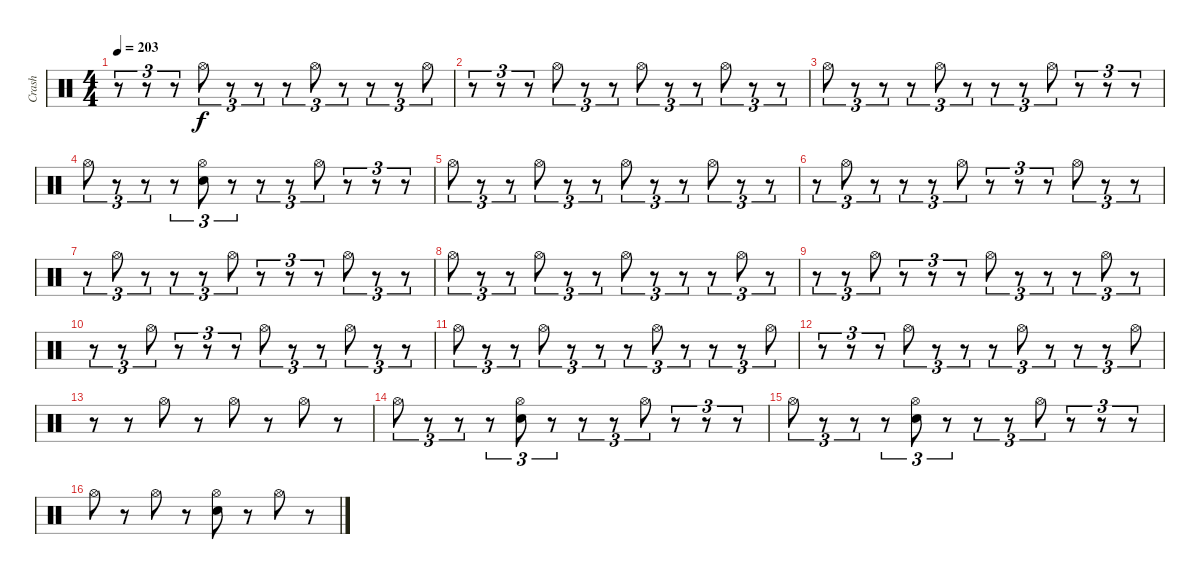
\track ("Crash" "Crash") {instrument percussion}
\staff {score}
\articulation defaults
\ts (4 4)
\tempo 203
\clef neutral
\ks c
r.8{tu (3 2) dy f} r.8{tu (3 2)} r.8{tu (3 2)} "Hi-Hat (open)".8{tu (3 2)} r.8{tu (3 2)} r.8{tu (3 2)} r.8{tu (3 2)} "Hi-Hat (open)".8{tu (3 2)} r.8{tu (3 2)} r.8{tu (3 2)} r.8{tu (3 2)} "Hi-Hat (open)".8{tu (3 2)} |
r.8{tu (3 2)} r.8{tu (3 2)} r.8{tu (3 2)} "Hi-Hat (open)".8{tu (3 2)} r.8{tu (3 2)} r.8{tu (3 2)} "Hi-Hat (open)".8{tu (3 2)} r.8{tu (3 2)} r.8{tu (3 2)} "Hi-Hat (open)".8{tu (3 2)} r.8{tu (3 2)} r.8{tu (3 2)} |
"Hi-Hat (open)".8{tu (3 2)} r.8{tu (3 2)} r.8{tu (3 2)} r.8{tu (3 2)} "Hi-Hat (open)".8{tu (3 2)} r.8{tu (3 2)} r.8{tu (3 2)} r.8{tu (3 2)} "Hi-Hat (open)".8{tu (3 2)} r.8{tu (3 2)} r.8{tu (3 2)} r.8{tu (3 2)} |
"Hi-Hat (open)".8{tu (3 2)} r.8{tu (3 2)} r.8{tu (3 2)} r.8{tu (3 2)} ("Hi-Hat (open)" "Snare (hit) 2").8{tu (3 2)} r.8{tu (3 2)} r.8{tu (3 2)} r.8{tu (3 2)} "Hi-Hat (open)".8{tu (3 2)} r.8{tu (3 2)} r.8{tu (3 2)} r.8{tu (3 2)} |
"Hi-Hat (open)".8{tu (3 2)} r.8{tu (3 2)} r.8{tu (3 2)} "Hi-Hat (open)".8{tu (3 2)} r.8{tu (3 2)} r.8{tu (3 2)} "Hi-Hat (open)".8{tu (3 2)} r.8{tu (3 2)} r.8{tu (3 2)} "Hi-Hat (open)".8{tu (3 2)} r.8{tu (3 2)} r.8{tu (3 2)} |
r.8{tu (3 2)} "Hi-Hat (open)".8{tu (3 2)} r.8{tu (3 2)} r.8{tu (3 2)} r.8{tu (3 2)} "Hi-Hat (open)".8{tu (3 2)} r.8{tu (3 2)} r.8{tu (3 2)} r.8{tu (3 2)} "Hi-Hat (open)".8{tu (3 2)} r.8{tu (3 2)} r.8{tu (3 2)} |
r.8{tu (3 2)} "Hi-Hat (open)".8{tu (3 2)} r.8{tu (3 2)} r.8{tu (3 2)} r.8{tu (3 2)} "Hi-Hat (open)".8{tu (3 2)} r.8{tu (3 2)} r.8{tu (3 2)} r.8{tu (3 2)} "Hi-Hat (open)".8{tu (3 2)} r.8{tu (3 2)} r.8{tu (3 2)} |
"Hi-Hat (open)".8{tu (3 2)} r.8{tu (3 2)} r.8{tu (3 2)} "Hi-Hat (open)".8{tu (3 2)} r.8{tu (3 2)} r.8{tu (3 2)} "Hi-Hat (open)".8{tu (3 2)} r.8{tu (3 2)} r.8{tu (3 2)} r.8{tu (3 2)} "Hi-Hat (open)".8{tu (3 2)} r.8{tu (3 2)} |
r.8{tu (3 2)} r.8{tu (3 2)} "Hi-Hat (open)".8{tu (3 2)} r.8{tu (3 2)} r.8{tu (3 2)} r.8{tu (3 2)} "Hi-Hat (open)".8{tu (3 2)} r.8{tu (3 2)} r.8{tu (3 2)} r.8{tu (3 2)} "Hi-Hat (open)".8{tu (3 2)} r.8{tu (3 2)} |
r.8{tu (3 2)} r.8{tu (3 2)} "Hi-Hat (open)".8{tu (3 2)} r.8{tu (3 2)} r.8{tu (3 2)} r.8{tu (3 2)} "Hi-Hat (open)".8{tu (3 2)} r.8{tu (3 2)} r.8{tu (3 2)} "Hi-Hat (open)".8{tu (3 2)} r.8{tu (3 2)} r.8{tu (3 2)} |
"Hi-Hat (open)".8{tu (3 2)} r.8{tu (3 2)} r.8{tu (3 2)} "Hi-Hat (open)".8{tu (3 2)} r.8{tu (3 2)} r.8{tu (3 2)} r.8{tu (3 2)} "Hi-Hat (open)".8{tu (3 2)} r.8{tu (3 2)} r.8{tu (3 2)} r.8{tu (3 2)} "Hi-Hat (open)".8{tu (3 2)} |
r.8{tu (3 2)} r.8{tu (3 2)} r.8{tu (3 2)} "Hi-Hat (open)".8{tu (3 2)} r.8{tu (3 2)} r.8{tu (3 2)} r.8{tu (3 2)} "Hi-Hat (open)".8{tu (3 2)} r.8{tu (3 2)} r.8{tu (3 2)} r.8{tu (3 2)} "Hi-Hat (open)".8{tu (3 2)} |
r.8 r.8 "Hi-Hat (open)".8 r.8 "Hi-Hat (open)".8 r.8 "Hi-Hat (open)".8 r.8 |
"Hi-Hat (open)".8{tu (3 2)} r.8{tu (3 2)} r.8{tu (3 2)} r.8{tu (3 2)} ("Hi-Hat (open)" "Snare (hit) 2").8{tu (3 2)} r.8{tu (3 2)} r.8{tu (3 2)} r.8{tu (3 2)} "Hi-Hat (open)".8{tu (3 2)} r.8{tu (3 2)} r.8{tu (3 2)} r.8{tu (3 2)} |
"Hi-Hat (open)".8{tu (3 2)} r.8{tu (3 2)} r.8{tu (3 2)} r.8{tu (3 2)} ("Hi-Hat (open)" "Snare (hit) 2").8{tu (3 2)} r.8{tu (3 2)} r.8{tu (3 2)} r.8{tu (3 2)} "Hi-Hat (open)".8{tu (3 2)} r.8{tu (3 2)} r.8{tu (3 2)} r.8{tu (3 2)} |
"Hi-Hat (open)".8 r.8 "Hi-Hat (open)".8 r.8 ("Hi-Hat (open)" "Snare (hit) 2").8 r.8 "Hi-Hat (open)".8 r.8
